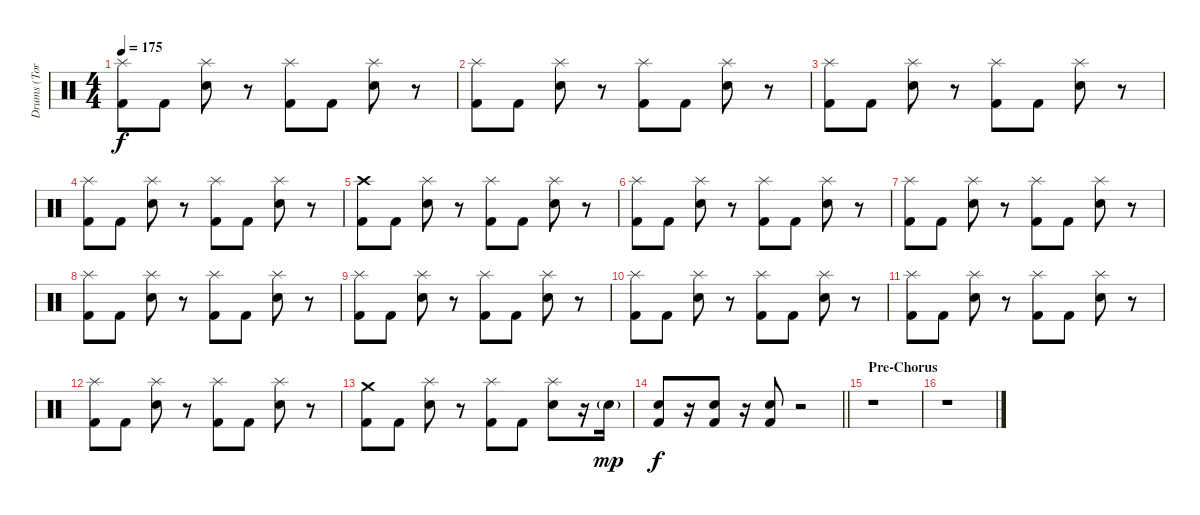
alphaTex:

\track ("Drums (Tora)" "Drums (Tor") {instrument percussion}
\staff {score}
\articulation defaults
\ts (4 4)
\tempo 175
\clef neutral
\ks c
("Splash (hit)" "Kick (hit) 2").8{dy f} "Kick (hit) 2".8 ("Splash (hit)" "Electric Snare (hit)").8 r.8 ("Splash (hit)" "Kick (hit) 2").8 "Kick (hit) 2".8 ("Splash (hit)" "Electric Snare (hit)").8 r.8 |
("Splash (hit)" "Kick (hit) 2").8 "Kick (hit) 2".8 ("Splash (hit)" "Electric Snare (hit)").8 r.8 ("Splash (hit)" "Kick (hit) 2").8 "Kick (hit) 2".8 ("Splash (hit)" "Electric Snare (hit)").8 r.8 |
("Splash (hit)" "Kick (hit) 2").8 "Kick (hit) 2".8 ("Splash (hit)" "Electric Snare (hit)").8 r.8 ("Splash (hit)" "Kick (hit) 2").8 "Kick (hit) 2".8 ("Splash (hit)" "Electric Snare (hit)").8 r.8 |
("Splash (hit)" "Kick (hit) 2").8 "Kick (hit) 2".8 ("Splash (hit)" "Electric Snare (hit)").8 r.8 ("Splash (hit)" "Kick (hit) 2").8 "Kick (hit) 2".8 ("Splash (hit)" "Electric Snare (hit)").8 r.8 |
("Crash high (hit)" "Kick (hit) 2").8 "Kick (hit) 2".8 ("Splash (hit)" "Electric Snare (hit)").8 r.8 ("Splash (hit)" "Kick (hit) 2").8 "Kick (hit) 2".8 ("Splash (hit)" "Electric Snare (hit)").8 r.8 |
("Splash (hit)" "Kick (hit) 2").8 "Kick (hit) 2".8 ("Splash (hit)" "Electric Snare (hit)").8 r.8 ("Splash (hit)" "Kick (hit) 2").8 "Kick (hit) 2".8 ("Splash (hit)" "Electric Snare (hit)").8 r.8 |
("Splash (hit)" "Kick (hit) 2").8 "Kick (hit) 2".8 ("Splash (hit)" "Electric Snare (hit)").8 r.8 ("Splash (hit)" "Kick (hit) 2").8 "Kick (hit) 2".8 ("Splash (hit)" "Electric Snare (hit)").8 r.8 |
("Splash (hit)" "Kick (hit) 2").8 "Kick (hit) 2".8 ("Splash (hit)" "Electric Snare (hit)").8 r.8 ("Splash (hit)" "Kick (hit) 2").8 "Kick (hit) 2".8 ("Splash (hit)" "Electric Snare (hit)").8 r.8 |
("Splash (hit)" "Kick (hit) 2").8 "Kick (hit) 2".8 ("Splash (hit)" "Electric Snare (hit)").8 r.8 ("Splash (hit)" "Kick (hit) 2").8 "Kick (hit) 2".8 ("Splash (hit)" "Electric Snare (hit)").8 r.8 |
("Splash (hit)" "Kick (hit) 2").8 "Kick (hit) 2".8 ("Splash (hit)" "Electric Snare (hit)").8 r.8 ("Splash (hit)" "Kick (hit) 2").8 "Kick (hit) 2".8 ("Splash (hit)" "Electric Snare (hit)").8 r.8 |
("Splash (hit)" "Kick (hit) 2").8 "Kick (hit) 2".8 ("Splash (hit)" "Electric Snare (hit)").8 r.8 ("Splash (hit)" "Kick (hit) 2").8 "Kick (hit) 2".8 ("Splash (hit)" "Electric Snare (hit)").8 r.8 |
("Splash (hit)" "Kick (hit) 2").8 "Kick (hit) 2".8 ("Splash (hit)" "Electric Snare (hit)").8 r.8 ("Splash (hit)" "Kick (hit) 2").8 "Kick (hit) 2".8 ("Splash (hit)" "Electric Snare (hit)").8 r.8 |
("Crash medium (hit)" "Kick (hit) 2").8 "Kick (hit) 2".8 ("Splash (hit)" "Electric Snare (hit)").8 r.8 ("Splash (hit)" "Kick (hit) 2").8 "Kick (hit) 2".8 ("Splash (hit)" "Electric Snare (hit)").8 r.16 "Electric Snare (hit)"{g}.16{dy mp} |
\barLineRight lightlight
("Electric Snare (hit)" "Kick (hit) 2").8{dy f} r.16 ("Electric Snare (hit)" "Kick (hit) 2").8 r.16 ("Electric Snare (hit)" "Kick (hit) 2").8 r.2 |
\section ("" "Pre-Chorus")
r.1 |
r.1
